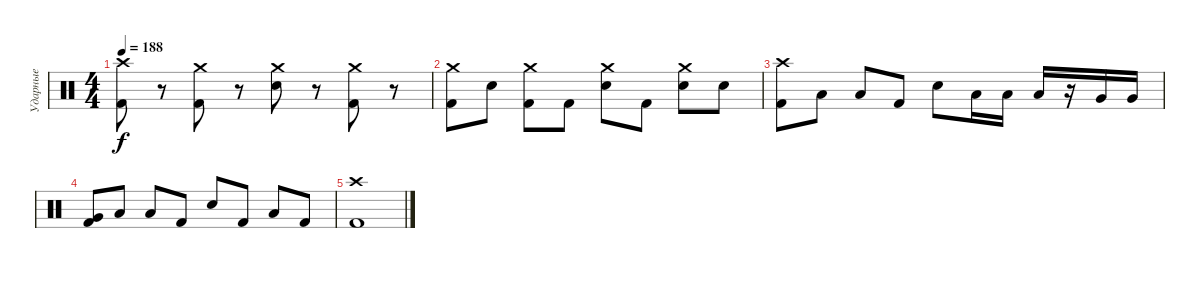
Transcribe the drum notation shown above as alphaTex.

\track ("Ударные" "Ударные") {instrument percussion}
\staff {score}
\articulation defaults
\ts (4 4)
\tempo 188
\clef neutral
\ks c
("Crash high (hit)" "Kick (hit) 2").8{dy f} r.8 ("Crash medium (hit)" "Kick (hit) 2").8 r.8 ("Crash medium (hit)" "Electric Snare (hit)").8 r.8 ("Crash medium (hit)" "Kick (hit) 2").8 r.8 |
("Crash medium (hit)" "Kick (hit) 2").8 "Electric Snare (hit)".8 ("Crash medium (hit)" "Kick (hit) 2").8 "Kick (hit) 2".8 ("Crash medium (hit)" "Electric Snare (hit)").8 "Kick (hit) 2".8 ("Crash medium (hit)" "Electric Snare (hit)").8 "Electric Snare (hit)".8 |
("Crash high (hit)" "Kick (hit) 2").8 "Low Tom (hit)".8 "Low Tom (hit)".8 "Kick (hit) 2".8 "Electric Snare (hit)".8 "Low Tom (hit)".16 "Low Tom (hit)".16 "Low Tom (hit)".16 r.16 "Very Low Tom (hit)".16 "Very Low Tom (hit)".16 |
("Very Low Tom (hit)" "Kick (hit) 2").8 "Low Tom (hit)".8 "Low Tom (hit)".8 "Kick (hit) 2".8 "Electric Snare (hit)".8 "Kick (hit) 2".8 "Low Tom (hit)".8 "Kick (hit) 2".8 |
("Crash high (hit)" "Kick (hit) 2").1
